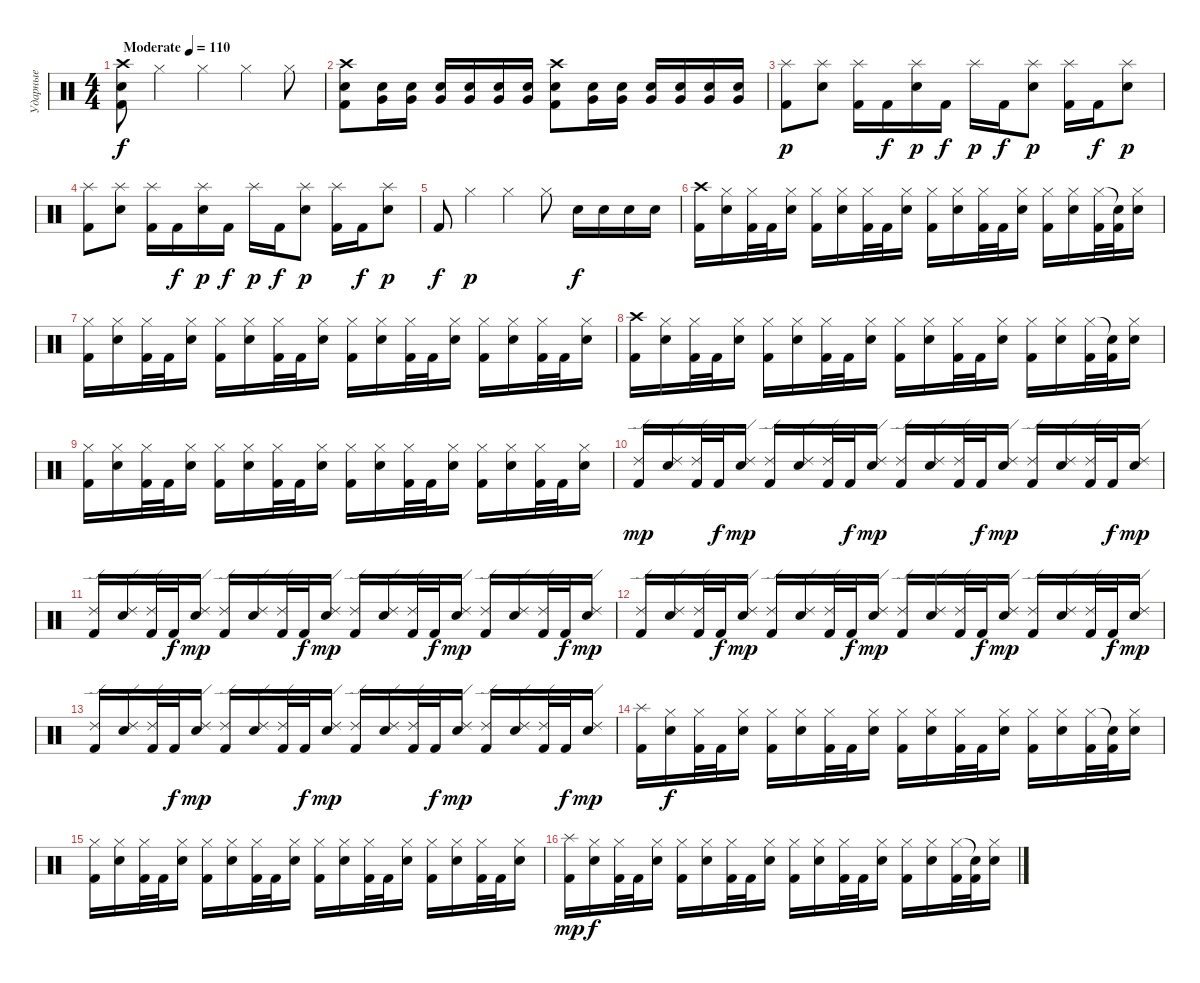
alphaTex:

\track ("Ударные" "Ударные") {instrument percussion}
\staff {score}
\articulation defaults
\ts (4 4)
\tempo (110 "Moderate")
\clef neutral
\ks c
("Crash high (hit)" "Electric Snare (hit)" "Kick (hit) 2").8{dy f} "Hi-Hat (closed)".4 "Hi-Hat (closed)".4 "Hi-Hat (closed)".4 "Hi-Hat (closed)".8 |
("Crash high (hit)" "Electric Snare (hit)" "Kick (hit) 2").8 ("Electric Snare (hit)" "Very Low Tom (hit)").16 ("Electric Snare (hit)" "Very Low Tom (hit)").16 ("Electric Snare (hit)" "Very Low Tom (hit)").16 ("Electric Snare (hit)" "Very Low Tom (hit)").16 ("Electric Snare (hit)" "Very Low Tom (hit)").16 ("Electric Snare (hit)" "Very Low Tom (hit)").16 ("Crash high (hit)" "Electric Snare (hit)" "Kick (hit) 2").8 ("Electric Snare (hit)" "Very Low Tom (hit)").16 ("Electric Snare (hit)" "Very Low Tom (hit)").16 ("Electric Snare (hit)" "Very Low Tom (hit)").16 ("Electric Snare (hit)" "Very Low Tom (hit)").16 ("Electric Snare (hit)" "Very Low Tom (hit)").16 ("Electric Snare (hit)" "Very Low Tom (hit)").16 |
("Splash (hit)" "Kick (hit) 2").8{dy p} ("Splash (hit)" "Electric Snare (hit)").8 ("Splash (hit)" "Kick (hit) 2").16 "Kick (hit) 2".16{dy f} ("Splash (hit)" "Electric Snare (hit)").16{dy p} "Kick (hit) 2".16{dy f} "Splash (hit)".16{dy p} "Kick (hit) 2".16{dy f} ("Splash (hit)" "Electric Snare (hit)").8{dy p} ("Splash (hit)" "Kick (hit) 2").16 "Kick (hit) 2".16{dy f} ("Splash (hit)" "Electric Snare (hit)").8{dy p} |
("Splash (hit)" "Kick (hit) 2").8 ("Splash (hit)" "Electric Snare (hit)").8 ("Splash (hit)" "Kick (hit) 2").16 "Kick (hit) 2".16{dy f} ("Splash (hit)" "Electric Snare (hit)").16{dy p} "Kick (hit) 2".16{dy f} "Splash (hit)".16{dy p} "Kick (hit) 2".16{dy f} ("Splash (hit)" "Electric Snare (hit)").8{dy p} ("Splash (hit)" "Kick (hit) 2").16 "Kick (hit) 2".16{dy f} ("Splash (hit)" "Electric Snare (hit)").8{dy p} |
"Kick (hit) 2".8{dy f} "Hi-Hat (closed)".4{dy p} "Hi-Hat (closed)".4 "Hi-Hat (closed)".8 "Electric Snare (hit)".16{dy f} "Electric Snare (hit)".16 "Electric Snare (hit)".16 "Electric Snare (hit)".16 |
("Crash high (hit)" "Kick (hit) 2").16 ("Hi-Hat (closed)" "Electric Snare (hit)").16 ("Hi-Hat (closed)" "Kick (hit) 2").32 "Kick (hit) 2".32 ("Hi-Hat (closed)" "Electric Snare (hit)").16 ("Hi-Hat (closed)" "Kick (hit) 2").16 ("Hi-Hat (closed)" "Electric Snare (hit)").16 ("Hi-Hat (closed)" "Kick (hit) 2").32 "Kick (hit) 2".32 ("Hi-Hat (closed)" "Electric Snare (hit)").16 ("Hi-Hat (closed)" "Kick (hit) 2").16 ("Hi-Hat (closed)" "Electric Snare (hit)").16 ("Hi-Hat (closed)" "Kick (hit) 2").32 "Kick (hit) 2".32 ("Hi-Hat (closed)" "Electric Snare (hit)").16 ("Hi-Hat (closed)" "Kick (hit) 2").16 ("Hi-Hat (closed)" "Electric Snare (hit)").16 ("Hi-Hat (closed)" "Kick (hit) 2").32 ("Snare (hit)"{t} "Kick (hit) 2").32 ("Hi-Hat (closed)" "Electric Snare (hit)").16 |
("Hi-Hat (closed)" "Kick (hit) 2").16 ("Hi-Hat (closed)" "Electric Snare (hit)").16 ("Hi-Hat (closed)" "Kick (hit) 2").32 "Kick (hit) 2".32 ("Hi-Hat (closed)" "Electric Snare (hit)").16 ("Hi-Hat (closed)" "Kick (hit) 2").16 ("Hi-Hat (closed)" "Electric Snare (hit)").16 ("Hi-Hat (closed)" "Kick (hit) 2").32 "Kick (hit) 2".32 ("Hi-Hat (closed)" "Electric Snare (hit)").16 ("Hi-Hat (closed)" "Kick (hit) 2").16 ("Hi-Hat (closed)" "Electric Snare (hit)").16 ("Hi-Hat (closed)" "Kick (hit) 2").32 "Kick (hit) 2".32 ("Hi-Hat (closed)" "Electric Snare (hit)").16 ("Hi-Hat (closed)" "Kick (hit) 2").16 ("Hi-Hat (closed)" "Electric Snare (hit)").16 ("Hi-Hat (closed)" "Kick (hit) 2").32 "Kick (hit) 2".32 ("Hi-Hat (closed)" "Electric Snare (hit)").16 |
("Crash high (hit)" "Kick (hit) 2").16 ("Hi-Hat (closed)" "Electric Snare (hit)").16 ("Hi-Hat (closed)" "Kick (hit) 2").32 "Kick (hit) 2".32 ("Hi-Hat (closed)" "Electric Snare (hit)").16 ("Hi-Hat (closed)" "Kick (hit) 2").16 ("Hi-Hat (closed)" "Electric Snare (hit)").16 ("Hi-Hat (closed)" "Kick (hit) 2").32 "Kick (hit) 2".32 ("Hi-Hat (closed)" "Electric Snare (hit)").16 ("Hi-Hat (closed)" "Kick (hit) 2").16 ("Hi-Hat (closed)" "Electric Snare (hit)").16 ("Hi-Hat (closed)" "Kick (hit) 2").32 "Kick (hit) 2".32 ("Hi-Hat (closed)" "Electric Snare (hit)").16 ("Hi-Hat (closed)" "Kick (hit) 2").16 ("Hi-Hat (closed)" "Electric Snare (hit)").16 ("Hi-Hat (closed)" "Kick (hit) 2").32 ("Snare (hit)"{t} "Kick (hit) 2").32 ("Hi-Hat (closed)" "Electric Snare (hit)").16 |
("Hi-Hat (closed)" "Kick (hit) 2").16 ("Hi-Hat (closed)" "Electric Snare (hit)").16 ("Hi-Hat (closed)" "Kick (hit) 2").32 "Kick (hit) 2".32 ("Hi-Hat (closed)" "Electric Snare (hit)").16 ("Hi-Hat (closed)" "Kick (hit) 2").16 ("Hi-Hat (closed)" "Electric Snare (hit)").16 ("Hi-Hat (closed)" "Kick (hit) 2").32 "Kick (hit) 2".32 ("Hi-Hat (closed)" "Electric Snare (hit)").16 ("Hi-Hat (closed)" "Kick (hit) 2").16 ("Hi-Hat (closed)" "Electric Snare (hit)").16 ("Hi-Hat (closed)" "Kick (hit) 2").32 "Kick (hit) 2".32 ("Hi-Hat (closed)" "Electric Snare (hit)").16 ("Hi-Hat (closed)" "Kick (hit) 2").16 ("Hi-Hat (closed)" "Electric Snare (hit)").16 ("Hi-Hat (closed)" "Kick (hit) 2").32 "Kick (hit) 2".32 ("Hi-Hat (closed)" "Electric Snare (hit)").16 |
("Ride (edge) 2" "Kick (hit) 2").16{dy mp} ("Ride (edge) 2" "Electric Snare (hit)").16 ("Ride (edge) 2" "Kick (hit) 2").32 "Kick (hit) 2".32{dy f} ("Ride (edge) 2" "Electric Snare (hit)").16{dy mp} ("Ride (edge) 2" "Kick (hit) 2").16 ("Ride (edge) 2" "Electric Snare (hit)").16 ("Ride (edge) 2" "Kick (hit) 2").32 "Kick (hit) 2".32{dy f} ("Ride (edge) 2" "Electric Snare (hit)").16{dy mp} ("Ride (edge) 2" "Kick (hit) 2").16 ("Ride (edge) 2" "Electric Snare (hit)").16 ("Ride (edge) 2" "Kick (hit) 2").32 "Kick (hit) 2".32{dy f} ("Ride (edge) 2" "Electric Snare (hit)").16{dy mp} ("Ride (edge) 2" "Kick (hit) 2").16 ("Ride (edge) 2" "Electric Snare (hit)").16 ("Ride (edge) 2" "Kick (hit) 2").32 "Kick (hit) 2".32{dy f} ("Ride (edge) 2" "Electric Snare (hit)").16{dy mp} |
("Ride (edge) 2" "Kick (hit) 2").16 ("Ride (edge) 2" "Electric Snare (hit)").16 ("Ride (edge) 2" "Kick (hit) 2").32 "Kick (hit) 2".32{dy f} ("Ride (edge) 2" "Electric Snare (hit)").16{dy mp} ("Ride (edge) 2" "Kick (hit) 2").16 ("Ride (edge) 2" "Electric Snare (hit)").16 ("Ride (edge) 2" "Kick (hit) 2").32 "Kick (hit) 2".32{dy f} ("Ride (edge) 2" "Electric Snare (hit)").16{dy mp} ("Ride (edge) 2" "Kick (hit) 2").16 ("Ride (edge) 2" "Electric Snare (hit)").16 ("Ride (edge) 2" "Kick (hit) 2").32 "Kick (hit) 2".32{dy f} ("Ride (edge) 2" "Electric Snare (hit)").16{dy mp} ("Ride (edge) 2" "Kick (hit) 2").16 ("Ride (edge) 2" "Electric Snare (hit)").16 ("Ride (edge) 2" "Kick (hit) 2").32 "Kick (hit) 2".32{dy f} ("Ride (edge) 2" "Electric Snare (hit)").16{dy mp} |
("Ride (edge) 2" "Kick (hit) 2").16 ("Ride (edge) 2" "Electric Snare (hit)").16 ("Ride (edge) 2" "Kick (hit) 2").32 "Kick (hit) 2".32{dy f} ("Ride (edge) 2" "Electric Snare (hit)").16{dy mp} ("Ride (edge) 2" "Kick (hit) 2").16 ("Ride (edge) 2" "Electric Snare (hit)").16 ("Ride (edge) 2" "Kick (hit) 2").32 "Kick (hit) 2".32{dy f} ("Ride (edge) 2" "Electric Snare (hit)").16{dy mp} ("Ride (edge) 2" "Kick (hit) 2").16 ("Ride (edge) 2" "Electric Snare (hit)").16 ("Ride (edge) 2" "Kick (hit) 2").32 "Kick (hit) 2".32{dy f} ("Ride (edge) 2" "Electric Snare (hit)").16{dy mp} ("Ride (edge) 2" "Kick (hit) 2").16 ("Ride (edge) 2" "Electric Snare (hit)").16 ("Ride (edge) 2" "Kick (hit) 2").32 "Kick (hit) 2".32{dy f} ("Ride (edge) 2" "Electric Snare (hit)").16{dy mp} |
("Ride (edge) 2" "Kick (hit) 2").16 ("Ride (edge) 2" "Electric Snare (hit)").16 ("Ride (edge) 2" "Kick (hit) 2").32 "Kick (hit) 2".32{dy f} ("Ride (edge) 2" "Electric Snare (hit)").16{dy mp} ("Ride (edge) 2" "Kick (hit) 2").16 ("Ride (edge) 2" "Electric Snare (hit)").16 ("Ride (edge) 2" "Kick (hit) 2").32 "Kick (hit) 2".32{dy f} ("Ride (edge) 2" "Electric Snare (hit)").16{dy mp} ("Ride (edge) 2" "Kick (hit) 2").16 ("Ride (edge) 2" "Electric Snare (hit)").16 ("Ride (edge) 2" "Kick (hit) 2").32 "Kick (hit) 2".32{dy f} ("Ride (edge) 2" "Electric Snare (hit)").16{dy mp} ("Ride (edge) 2" "Kick (hit) 2").16 ("Ride (edge) 2" "Electric Snare (hit)").16 ("Ride (edge) 2" "Kick (hit) 2").32 "Kick (hit) 2".32{dy f} ("Ride (edge) 2" "Electric Snare (hit)").16{dy mp} |
("Splash (hit)" "Kick (hit) 2").16 ("Hi-Hat (closed)" "Electric Snare (hit)").16{dy f} ("Hi-Hat (closed)" "Kick (hit) 2").32 "Kick (hit) 2".32 ("Hi-Hat (closed)" "Electric Snare (hit)").16 ("Hi-Hat (closed)" "Kick (hit) 2").16 ("Hi-Hat (closed)" "Electric Snare (hit)").16 ("Hi-Hat (closed)" "Kick (hit) 2").32 "Kick (hit) 2".32 ("Hi-Hat (closed)" "Electric Snare (hit)").16 ("Hi-Hat (closed)" "Kick (hit) 2").16 ("Hi-Hat (closed)" "Electric Snare (hit)").16 ("Hi-Hat (closed)" "Kick (hit) 2").32 "Kick (hit) 2".32 ("Hi-Hat (closed)" "Electric Snare (hit)").16 ("Hi-Hat (closed)" "Kick (hit) 2").16 ("Hi-Hat (closed)" "Electric Snare (hit)").16 ("Hi-Hat (closed)" "Kick (hit) 2").32 ("Snare (hit)"{t} "Kick (hit) 2").32 ("Hi-Hat (closed)" "Electric Snare (hit)").16 |
("Hi-Hat (closed)" "Kick (hit) 2").16 ("Hi-Hat (closed)" "Electric Snare (hit)").16 ("Hi-Hat (closed)" "Kick (hit) 2").32 "Kick (hit) 2".32 ("Hi-Hat (closed)" "Electric Snare (hit)").16 ("Hi-Hat (closed)" "Kick (hit) 2").16 ("Hi-Hat (closed)" "Electric Snare (hit)").16 ("Hi-Hat (closed)" "Kick (hit) 2").32 "Kick (hit) 2".32 ("Hi-Hat (closed)" "Electric Snare (hit)").16 ("Hi-Hat (closed)" "Kick (hit) 2").16 ("Hi-Hat (closed)" "Electric Snare (hit)").16 ("Hi-Hat (closed)" "Kick (hit) 2").32 "Kick (hit) 2".32 ("Hi-Hat (closed)" "Electric Snare (hit)").16 ("Hi-Hat (closed)" "Kick (hit) 2").16 ("Hi-Hat (closed)" "Electric Snare (hit)").16 ("Hi-Hat (closed)" "Kick (hit) 2").32 "Kick (hit) 2".32 ("Hi-Hat (closed)" "Electric Snare (hit)").16 |
("Splash (hit)" "Kick (hit) 2").16{dy mp} ("Hi-Hat (closed)" "Electric Snare (hit)").16{dy f} ("Hi-Hat (closed)" "Kick (hit) 2").32 "Kick (hit) 2".32 ("Hi-Hat (closed)" "Electric Snare (hit)").16 ("Hi-Hat (closed)" "Kick (hit) 2").16 ("Hi-Hat (closed)" "Electric Snare (hit)").16 ("Hi-Hat (closed)" "Kick (hit) 2").32 "Kick (hit) 2".32 ("Hi-Hat (closed)" "Electric Snare (hit)").16 ("Hi-Hat (closed)" "Kick (hit) 2").16 ("Hi-Hat (closed)" "Electric Snare (hit)").16 ("Hi-Hat (closed)" "Kick (hit) 2").32 "Kick (hit) 2".32 ("Hi-Hat (closed)" "Electric Snare (hit)").16 ("Hi-Hat (closed)" "Kick (hit) 2").16 ("Hi-Hat (closed)" "Electric Snare (hit)").16 ("Hi-Hat (closed)" "Kick (hit) 2").32 ("Snare (hit)"{t} "Kick (hit) 2").32 ("Hi-Hat (closed)" "Electric Snare (hit)").16
